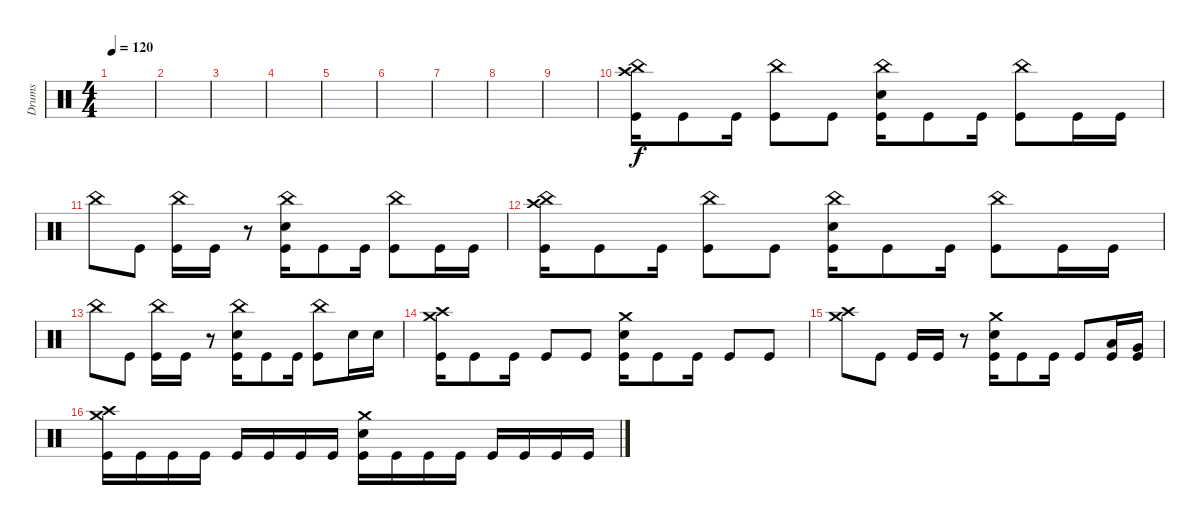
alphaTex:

\track ("Drums" "Drums") {instrument percussion}
\staff {score}
\articulation defaults
\ts (4 4)
\tempo 120
\clef neutral
\ks c
|
|
|
|
|
|
|
|
|
("Crash high (hit)" "China (hit)" "Kick (hit)").16 "Kick (hit)".8 "Kick (hit)".16 ("China (hit)" "Kick (hit)").8 "Kick (hit)".8 ("China (hit)" "Snare (hit) 2" "Kick (hit)").16 "Kick (hit)".8 "Kick (hit)".16 ("China (hit)" "Kick (hit)").8 "Kick (hit)".16 "Kick (hit)".16 |
"China (hit)".8 "Kick (hit)".8 ("China (hit)" "Kick (hit)").16 "Kick (hit)".16 r.8 ("China (hit)" "Snare (hit) 2" "Kick (hit)").16 "Kick (hit)".8 "Kick (hit)".16 ("China (hit)" "Kick (hit)").8 "Kick (hit)".16 "Kick (hit)".16 |
("Crash high (hit)" "China (hit)" "Kick (hit)").16 "Kick (hit)".8 "Kick (hit)".16 ("China (hit)" "Kick (hit)").8 "Kick (hit)".8 ("China (hit)" "Snare (hit) 2" "Kick (hit)").16 "Kick (hit)".8 "Kick (hit)".16 ("China (hit)" "Kick (hit)").8 "Kick (hit)".16 "Kick (hit)".16 |
"China (hit)".8 "Kick (hit)".8 ("China (hit)" "Kick (hit)").16 "Kick (hit)".16 r.8 ("China (hit)" "Snare (hit) 2" "Kick (hit)").16 "Kick (hit)".8 "Kick (hit)".16 ("China (hit)" "Kick (hit)").8 "Snare (hit) 2".16 "Snare (hit) 2".16 |
("Crash high (hit)" "Crash medium (hit)" "Kick (hit)").16 "Kick (hit)".8 "Kick (hit)".16 "Kick (hit)".8 "Kick (hit)".8 ("Crash medium (hit)" "Snare (hit) 2" "Kick (hit)").16 "Kick (hit)".8 "Kick (hit)".16 "Kick (hit)".8 "Kick (hit)".8 |
("Crash high (hit)" "Crash medium (hit)").8 "Kick (hit)".8 "Kick (hit)".16 "Kick (hit)".16 r.8 ("Crash medium (hit)" "Snare (hit) 2" "Kick (hit)").16 "Kick (hit)".8 "Kick (hit)".16 "Kick (hit)".8 ("Low Tom (hit)" "Kick (hit)").16 ("Very Low Tom (hit)" "Kick (hit)").16 |
("Crash high (hit)" "Crash medium (hit)" "Kick (hit)").16 "Kick (hit)".16 "Kick (hit)".16 "Kick (hit)".16 "Kick (hit)".16 "Kick (hit)".16 "Kick (hit)".16 "Kick (hit)".16 ("Crash medium (hit)" "Snare (hit) 2" "Kick (hit)").16 "Kick (hit)".16 "Kick (hit)".16 "Kick (hit)".16 "Kick (hit)".16 "Kick (hit)".16 "Kick (hit)".16 "Kick (hit)".16
